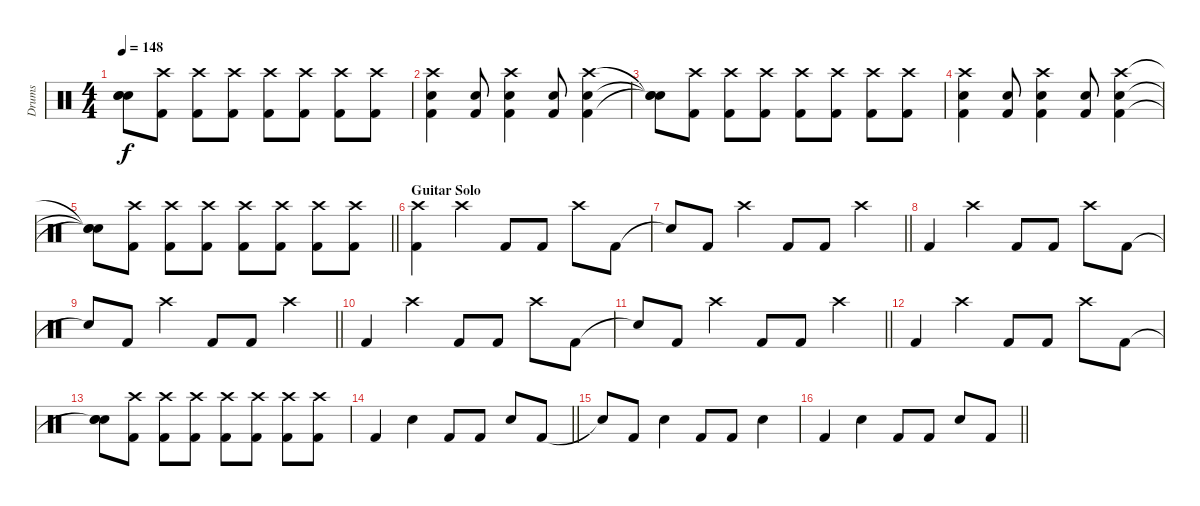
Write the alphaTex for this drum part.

\track ("Drums" "Drums") {instrument percussion}
\staff {score}
\articulation defaults
\ts (4 4)
\tempo 148
\clef neutral
\ks c
("Snare (hit)"{t} "Snare (hit)"{t} "Snare (hit)"{t}).8{dy f} ("Crash high (hit)" "Kick (hit) 2").8 ("Crash high (hit)" "Kick (hit) 2").8 ("Crash high (hit)" "Kick (hit) 2").8 ("Crash high (hit)" "Kick (hit) 2").8 ("Crash high (hit)" "Kick (hit) 2").8 ("Crash high (hit)" "Kick (hit) 2").8 ("Crash high (hit)" "Kick (hit) 2").8 |
("Crash high (hit)" "Electric Snare (hit)" "Kick (hit) 2").4 ("Electric Snare (hit)" "Kick (hit) 2").8 ("Crash high (hit)" "Electric Snare (hit)" "Kick (hit) 2").4 ("Electric Snare (hit)" "Kick (hit) 2").8 ("Crash high (hit)" "Electric Snare (hit)" "Kick (hit) 2").4 |
("Snare (hit)"{t} "Snare (hit)"{t} "Snare (hit)"{t}).8 ("Crash high (hit)" "Kick (hit) 2").8 ("Crash high (hit)" "Kick (hit) 2").8 ("Crash high (hit)" "Kick (hit) 2").8 ("Crash high (hit)" "Kick (hit) 2").8 ("Crash high (hit)" "Kick (hit) 2").8 ("Crash high (hit)" "Kick (hit) 2").8 ("Crash high (hit)" "Kick (hit) 2").8 |
("Crash high (hit)" "Electric Snare (hit)" "Kick (hit) 2").4 ("Electric Snare (hit)" "Kick (hit) 2").8 ("Crash high (hit)" "Electric Snare (hit)" "Kick (hit) 2").4 ("Electric Snare (hit)" "Kick (hit) 2").8 ("Crash high (hit)" "Electric Snare (hit)" "Kick (hit) 2").4 |
\barLineRight lightlight
("Snare (hit)"{t} "Snare (hit)"{t} "Snare (hit)"{t}).8 ("Crash high (hit)" "Kick (hit) 2").8 ("Crash high (hit)" "Kick (hit) 2").8 ("Crash high (hit)" "Kick (hit) 2").8 ("Crash high (hit)" "Kick (hit) 2").8 ("Crash high (hit)" "Kick (hit) 2").8 ("Crash high (hit)" "Kick (hit) 2").8 ("Crash high (hit)" "Kick (hit) 2").8 |
\section ("" "Guitar Solo")
("Crash high (hit)" "Kick (hit) 2").4 "Crash high (hit)".4 "Kick (hit) 2".8 "Kick (hit) 2".8 "Crash high (hit)".8 "Kick (hit) 2".8 |
\barLineRight lightlight "Snare (hit)"{t}.8 "Kick (hit) 2".8 "Crash high (hit)".4 "Kick (hit) 2".8 "Kick (hit) 2".8 "Crash high (hit)".4
|
"Kick (hit) 2".4 "Crash high (hit)".4 "Kick (hit) 2".8 "Kick (hit) 2".8 "Crash high (hit)".8 "Kick (hit) 2".8 |
\barLineRight lightlight "Snare (hit)"{t}.8 "Kick (hit) 2".8 "Crash high (hit)".4 "Kick (hit) 2".8 "Kick (hit) 2".8 "Crash high (hit)".4
|
"Kick (hit) 2".4 "Crash high (hit)".4 "Kick (hit) 2".8 "Kick (hit) 2".8 "Crash high (hit)".8 "Kick (hit) 2".8 |
\barLineRight lightlight "Snare (hit)"{t}.8 "Kick (hit) 2".8 "Crash high (hit)".4 "Kick (hit) 2".8 "Kick (hit) 2".8 "Crash high (hit)".4
|
"Kick (hit) 2".4 "Crash high (hit)".4 "Kick (hit) 2".8 "Kick (hit) 2".8 "Crash high (hit)".8 "Kick (hit) 2".8 |
("Snare (hit)"{t} "Snare (hit)" "Snare (hit)").8 ("Crash high (hit)" "Kick (hit) 2").8 ("Crash high (hit)" "Kick (hit) 2").8 ("Crash high (hit)" "Kick (hit) 2").8 ("Crash high (hit)" "Kick (hit) 2").8 ("Crash high (hit)" "Kick (hit) 2").8 ("Crash high (hit)" "Kick (hit) 2").8 ("Crash high (hit)" "Kick (hit) 2").8 |
\barLineRight lightlight "Kick (hit) 2".4 "Electric Snare (hit)".4 "Kick (hit) 2".8 "Kick (hit) 2".8 "Electric Snare (hit)".8 "Kick (hit) 2".8
|
"Snare (hit)"{t}.8 "Kick (hit) 2".8 "Electric Snare (hit)".4 "Kick (hit) 2".8 "Kick (hit) 2".8 "Electric Snare (hit)".4 |
\barLineRight lightlight "Kick (hit) 2".4 "Electric Snare (hit)".4 "Kick (hit) 2".8 "Kick (hit) 2".8 "Electric Snare (hit)".8 "Kick (hit) 2".8
